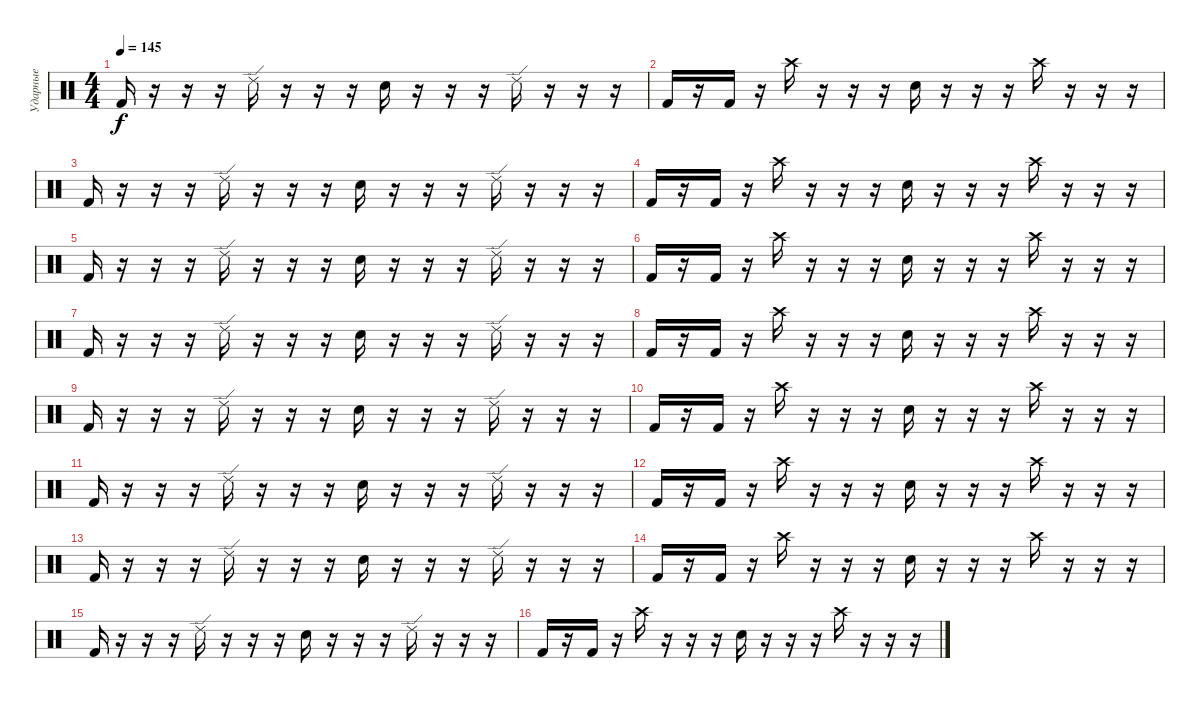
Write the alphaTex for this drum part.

\track ("Ударные" "Ударные") {instrument percussion}
\staff {score}
\articulation defaults
\ts (4 4)
\tempo 145
\clef neutral
\ks c "Kick (hit) 2".16{dy f}
r.16 r.16 r.16 "Ride (edge) 2".16 r.16 r.16 r.16 "Electric Snare (hit)".16 r.16 r.16 r.16 "Ride (edge) 2".16 r.16 r.16 r.16 |
"Kick (hit) 2".16 r.16 "Kick (hit) 2".16 r.16 "Crash high (hit)".16 r.16 r.16 r.16 "Electric Snare (hit)".16 r.16 r.16 r.16 "Crash high (hit)".16 r.16 r.16 r.16 |
"Kick (hit) 2".16 r.16 r.16 r.16 "Ride (edge) 2".16 r.16 r.16 r.16 "Electric Snare (hit)".16 r.16 r.16 r.16 "Ride (edge) 2".16 r.16 r.16 r.16 |
"Kick (hit) 2".16 r.16 "Kick (hit) 2".16 r.16 "Crash high (hit)".16 r.16 r.16 r.16 "Electric Snare (hit)".16 r.16 r.16 r.16 "Crash high (hit)".16 r.16 r.16 r.16 |
"Kick (hit) 2".16 r.16 r.16 r.16 "Ride (edge) 2".16 r.16 r.16 r.16 "Electric Snare (hit)".16 r.16 r.16 r.16 "Ride (edge) 2".16 r.16 r.16 r.16 |
"Kick (hit) 2".16 r.16 "Kick (hit) 2".16 r.16 "Crash high (hit)".16 r.16 r.16 r.16 "Electric Snare (hit)".16 r.16 r.16 r.16 "Crash high (hit)".16 r.16 r.16 r.16 |
"Kick (hit) 2".16 r.16 r.16 r.16 "Ride (edge) 2".16 r.16 r.16 r.16 "Electric Snare (hit)".16 r.16 r.16 r.16 "Ride (edge) 2".16 r.16 r.16 r.16 |
"Kick (hit) 2".16 r.16 "Kick (hit) 2".16 r.16 "Crash high (hit)".16 r.16 r.16 r.16 "Electric Snare (hit)".16 r.16 r.16 r.16 "Crash high (hit)".16 r.16 r.16 r.16 |
"Kick (hit) 2".16 r.16 r.16 r.16 "Ride (edge) 2".16 r.16 r.16 r.16 "Electric Snare (hit)".16 r.16 r.16 r.16 "Ride (edge) 2".16 r.16 r.16 r.16 |
"Kick (hit) 2".16 r.16 "Kick (hit) 2".16 r.16 "Crash high (hit)".16 r.16 r.16 r.16 "Electric Snare (hit)".16 r.16 r.16 r.16 "Crash high (hit)".16 r.16 r.16 r.16 |
"Kick (hit) 2".16 r.16 r.16 r.16 "Ride (edge) 2".16 r.16 r.16 r.16 "Electric Snare (hit)".16 r.16 r.16 r.16 "Ride (edge) 2".16 r.16 r.16 r.16 |
"Kick (hit) 2".16 r.16 "Kick (hit) 2".16 r.16 "Crash high (hit)".16 r.16 r.16 r.16 "Electric Snare (hit)".16 r.16 r.16 r.16 "Crash high (hit)".16 r.16 r.16 r.16 |
"Kick (hit) 2".16 r.16 r.16 r.16 "Ride (edge) 2".16 r.16 r.16 r.16 "Electric Snare (hit)".16 r.16 r.16 r.16 "Ride (edge) 2".16 r.16 r.16 r.16 |
"Kick (hit) 2".16 r.16 "Kick (hit) 2".16 r.16 "Crash high (hit)".16 r.16 r.16 r.16 "Electric Snare (hit)".16 r.16 r.16 r.16 "Crash high (hit)".16 r.16 r.16 r.16 |
"Kick (hit) 2".16 r.16 r.16 r.16 "Ride (edge) 2".16 r.16 r.16 r.16 "Electric Snare (hit)".16 r.16 r.16 r.16 "Ride (edge) 2".16 r.16 r.16 r.16 |
"Kick (hit) 2".16 r.16 "Kick (hit) 2".16 r.16 "Crash high (hit)".16 r.16 r.16 r.16 "Electric Snare (hit)".16 r.16 r.16 r.16 "Crash high (hit)".16 r.16 r.16 r.16
